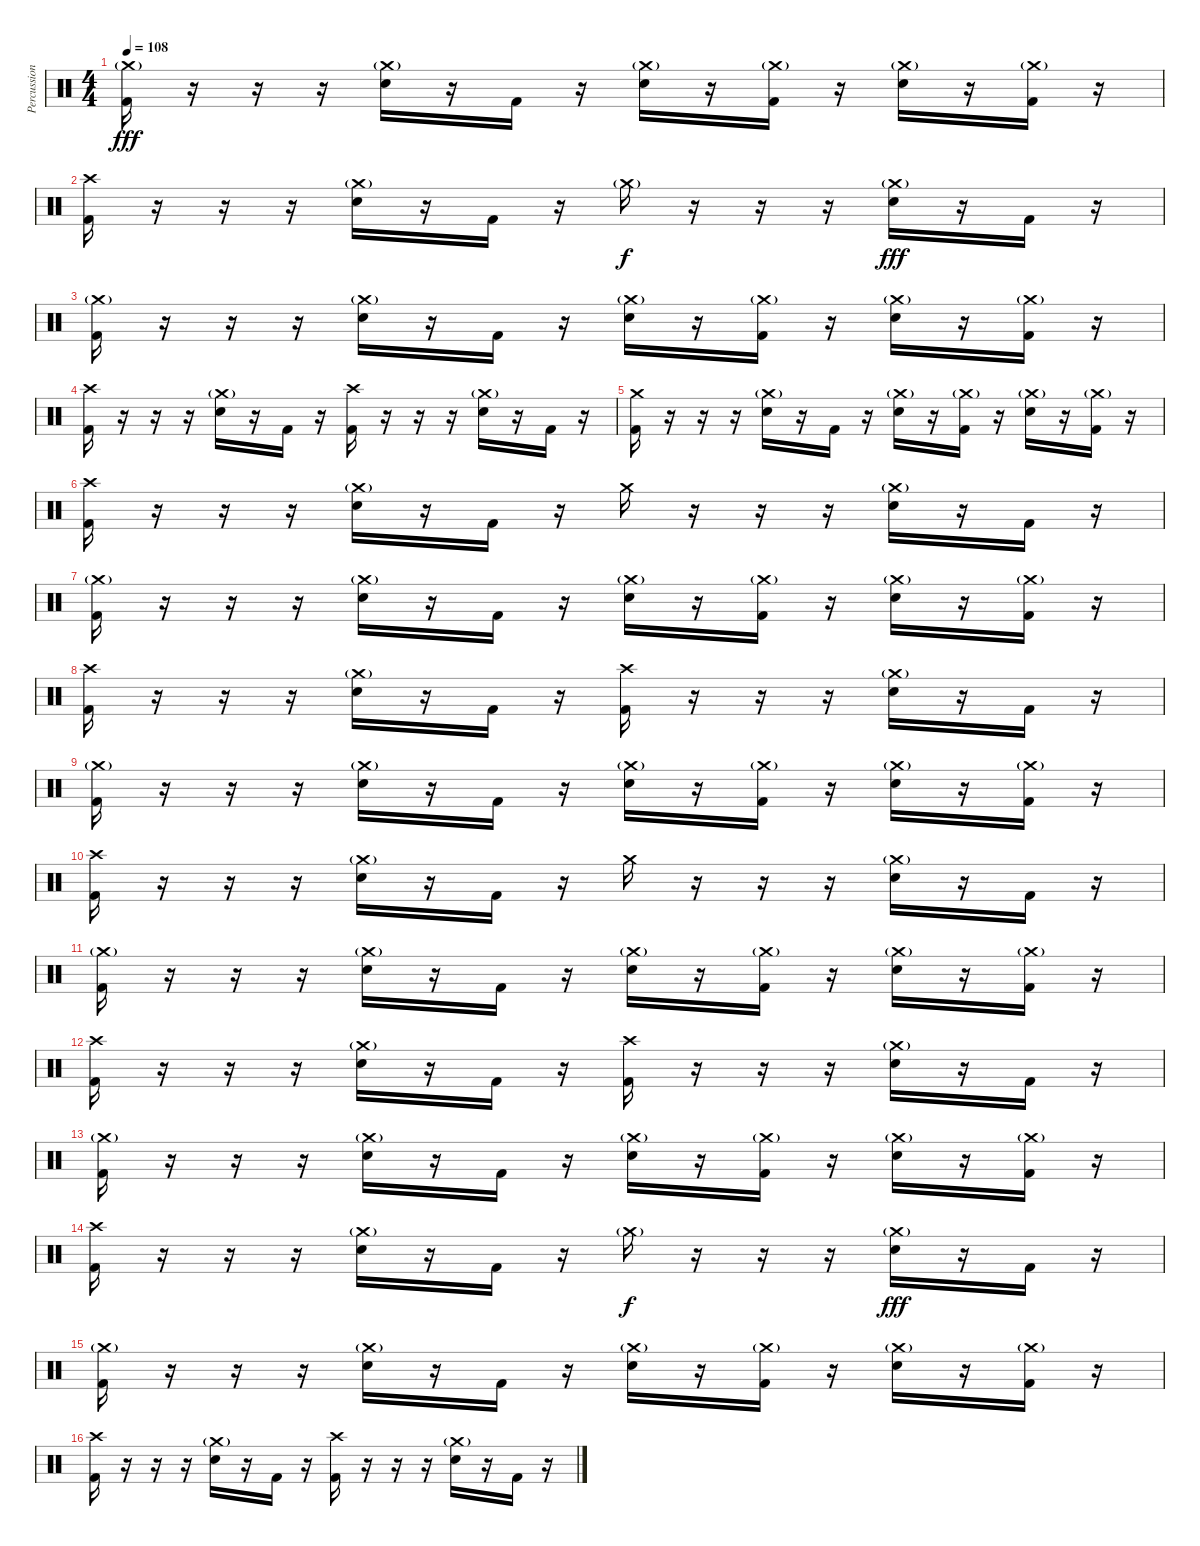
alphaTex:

\track ("Percussion" "Percussion") {instrument percussion}
\staff {score}
\articulation defaults
\ts (4 4)
\tempo 108
\clef neutral
\ks c
("Crash medium (hit)"{g} "Kick (hit) 2").16{dy fff} r.16 r.16 r.16 ("Crash medium (hit)"{g} "Electric Snare (hit)").16 r.16 "Kick (hit) 2".16 r.16 ("Crash medium (hit)"{g} "Electric Snare (hit)").16 r.16 ("Crash medium (hit)"{g} "Kick (hit) 2").16 r.16 ("Crash medium (hit)"{g} "Electric Snare (hit)").16 r.16 ("Crash medium (hit)"{g} "Kick (hit) 2").16 r.16 |
("Crash high (hit)" "Kick (hit) 2").16 r.16 r.16 r.16 ("Crash medium (hit)"{g} "Electric Snare (hit)").16 r.16 "Kick (hit) 2".16 r.16 "Crash medium (hit)"{g}.16{dy f} r.16 r.16 r.16 ("Crash medium (hit)"{g} "Electric Snare (hit)").16{dy fff} r.16 "Kick (hit) 2".16 r.16 |
("Crash medium (hit)"{g} "Kick (hit) 2").16 r.16 r.16 r.16 ("Crash medium (hit)"{g} "Electric Snare (hit)").16 r.16 "Kick (hit) 2".16 r.16 ("Crash medium (hit)"{g} "Electric Snare (hit)").16 r.16 ("Crash medium (hit)"{g} "Kick (hit) 2").16 r.16 ("Crash medium (hit)"{g} "Electric Snare (hit)").16 r.16 ("Crash medium (hit)"{g} "Kick (hit) 2").16 r.16 |
("Crash high (hit)" "Kick (hit) 2").16 r.16 r.16 r.16 ("Crash medium (hit)"{g} "Electric Snare (hit)").16 r.16 "Kick (hit) 2".16 r.16 ("Crash high (hit)" "Kick (hit) 2").16 r.16 r.16 r.16 ("Crash medium (hit)"{g} "Electric Snare (hit)").16 r.16 "Kick (hit) 2".16 r.16 |
("Crash medium (hit)" "Kick (hit) 2").16 r.16 r.16 r.16 ("Crash medium (hit)"{g} "Electric Snare (hit)").16 r.16 "Kick (hit) 2".16 r.16 ("Crash medium (hit)"{g} "Electric Snare (hit)").16 r.16 ("Crash medium (hit)"{g} "Kick (hit) 2").16 r.16 ("Crash medium (hit)"{g} "Electric Snare (hit)").16 r.16 ("Crash medium (hit)"{g} "Kick (hit) 2").16 r.16 |
("Crash high (hit)" "Kick (hit) 2").16 r.16 r.16 r.16 ("Crash medium (hit)"{g} "Electric Snare (hit)").16 r.16 "Kick (hit) 2".16 r.16 "Crash medium (hit)".16 r.16 r.16 r.16 ("Crash medium (hit)"{g} "Electric Snare (hit)").16 r.16 "Kick (hit) 2".16 r.16 |
("Crash medium (hit)"{g} "Kick (hit) 2").16 r.16 r.16 r.16 ("Crash medium (hit)"{g} "Electric Snare (hit)").16 r.16 "Kick (hit) 2".16 r.16 ("Crash medium (hit)"{g} "Electric Snare (hit)").16 r.16 ("Crash medium (hit)"{g} "Kick (hit) 2").16 r.16 ("Crash medium (hit)"{g} "Electric Snare (hit)").16 r.16 ("Crash medium (hit)"{g} "Kick (hit) 2").16 r.16 |
("Crash high (hit)" "Kick (hit) 2").16 r.16 r.16 r.16 ("Crash medium (hit)"{g} "Electric Snare (hit)").16 r.16 "Kick (hit) 2".16 r.16 ("Crash high (hit)" "Kick (hit) 2").16 r.16 r.16 r.16 ("Crash medium (hit)"{g} "Electric Snare (hit)").16 r.16 "Kick (hit) 2".16 r.16 |
("Crash medium (hit)"{g} "Kick (hit) 2").16 r.16 r.16 r.16 ("Crash medium (hit)"{g} "Electric Snare (hit)").16 r.16 "Kick (hit) 2".16 r.16 ("Crash medium (hit)"{g} "Electric Snare (hit)").16 r.16 ("Crash medium (hit)"{g} "Kick (hit) 2").16 r.16 ("Crash medium (hit)"{g} "Electric Snare (hit)").16 r.16 ("Crash medium (hit)"{g} "Kick (hit) 2").16 r.16 |
("Crash high (hit)" "Kick (hit) 2").16 r.16 r.16 r.16 ("Crash medium (hit)"{g} "Electric Snare (hit)").16 r.16 "Kick (hit) 2".16 r.16 "Crash medium (hit)".16 r.16 r.16 r.16 ("Crash medium (hit)"{g} "Electric Snare (hit)").16 r.16 "Kick (hit) 2".16 r.16 |
("Crash medium (hit)"{g} "Kick (hit) 2").16 r.16 r.16 r.16 ("Crash medium (hit)"{g} "Electric Snare (hit)").16 r.16 "Kick (hit) 2".16 r.16 ("Crash medium (hit)"{g} "Electric Snare (hit)").16 r.16 ("Crash medium (hit)"{g} "Kick (hit) 2").16 r.16 ("Crash medium (hit)"{g} "Electric Snare (hit)").16 r.16 ("Crash medium (hit)"{g} "Kick (hit) 2").16 r.16 |
("Crash high (hit)" "Kick (hit) 2").16 r.16 r.16 r.16 ("Crash medium (hit)"{g} "Electric Snare (hit)").16 r.16 "Kick (hit) 2".16 r.16 ("Crash high (hit)" "Kick (hit) 2").16 r.16 r.16 r.16 ("Crash medium (hit)"{g} "Electric Snare (hit)").16 r.16 "Kick (hit) 2".16 r.16 |
("Crash medium (hit)"{g} "Kick (hit) 2").16 r.16 r.16 r.16 ("Crash medium (hit)"{g} "Electric Snare (hit)").16 r.16 "Kick (hit) 2".16 r.16 ("Crash medium (hit)"{g} "Electric Snare (hit)").16 r.16 ("Crash medium (hit)"{g} "Kick (hit) 2").16 r.16 ("Crash medium (hit)"{g} "Electric Snare (hit)").16 r.16 ("Crash medium (hit)"{g} "Kick (hit) 2").16 r.16 |
("Crash high (hit)" "Kick (hit) 2").16 r.16 r.16 r.16 ("Crash medium (hit)"{g} "Electric Snare (hit)").16 r.16 "Kick (hit) 2".16 r.16 "Crash medium (hit)"{g}.16{dy f} r.16 r.16 r.16 ("Crash medium (hit)"{g} "Electric Snare (hit)").16{dy fff} r.16 "Kick (hit) 2".16 r.16 |
("Crash medium (hit)"{g} "Kick (hit) 2").16 r.16 r.16 r.16 ("Crash medium (hit)"{g} "Electric Snare (hit)").16 r.16 "Kick (hit) 2".16 r.16 ("Crash medium (hit)"{g} "Electric Snare (hit)").16 r.16 ("Crash medium (hit)"{g} "Kick (hit) 2").16 r.16 ("Crash medium (hit)"{g} "Electric Snare (hit)").16 r.16 ("Crash medium (hit)"{g} "Kick (hit) 2").16 r.16 |
("Crash high (hit)" "Kick (hit) 2").16 r.16 r.16 r.16 ("Crash medium (hit)"{g} "Electric Snare (hit)").16 r.16 "Kick (hit) 2".16 r.16 ("Crash high (hit)" "Kick (hit) 2").16 r.16 r.16 r.16 ("Crash medium (hit)"{g} "Electric Snare (hit)").16 r.16 "Kick (hit) 2".16 r.16
